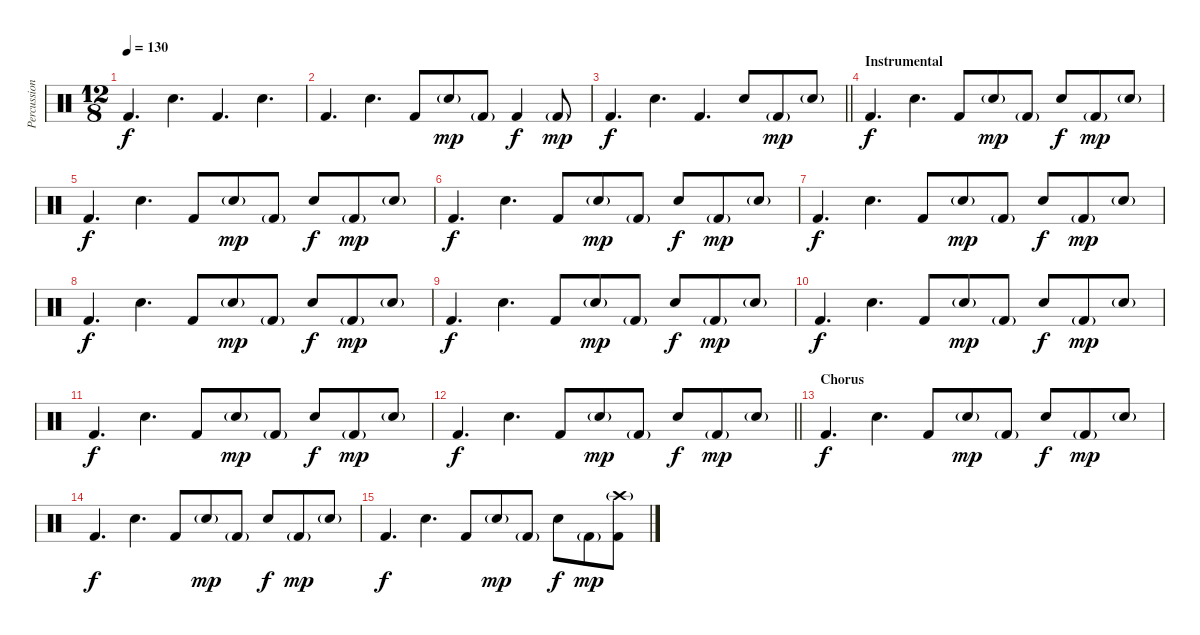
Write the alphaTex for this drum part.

\track ("Percussion" "Percussion") {instrument percussion}
\staff {score}
\articulation defaults
\ts (12 8)
\tempo 130
\clef neutral
\ks c "Kick (hit) 2".4{d dy f} "Snare (hit) 2".4{d} "Kick (hit) 2".4{d} "Snare (hit) 2".4{d}
|
"Kick (hit) 2".4{d} "Snare (hit) 2".4{d} "Kick (hit) 2".8 "Snare (hit) 2"{g}.8{dy mp} "Kick (hit) 2"{g}.8 "Kick (hit) 2".4{dy f} "Kick (hit) 2"{g}.8{dy mp} |
\barLineRight lightlight "Kick (hit) 2".4{d dy f} "Snare (hit) 2".4{d} "Kick (hit) 2".4{d} "Snare (hit) 2".8 "Kick (hit) 2"{g}.8{dy mp} "Snare (hit) 2"{g}.8
|
\section ("" "Instrumental")
"Kick (hit) 2".4{d dy f} "Snare (hit) 2".4{d} "Kick (hit) 2".8 "Snare (hit) 2"{g}.8{dy mp} "Kick (hit) 2"{g}.8 "Snare (hit) 2".8{dy f} "Kick (hit) 2"{g}.8{dy mp} "Snare (hit) 2"{g}.8 |
"Kick (hit) 2".4{d dy f} "Snare (hit) 2".4{d} "Kick (hit) 2".8 "Snare (hit) 2"{g}.8{dy mp} "Kick (hit) 2"{g}.8 "Snare (hit) 2".8{dy f} "Kick (hit) 2"{g}.8{dy mp} "Snare (hit) 2"{g}.8 |
"Kick (hit) 2".4{d dy f} "Snare (hit) 2".4{d} "Kick (hit) 2".8 "Snare (hit) 2"{g}.8{dy mp} "Kick (hit) 2"{g}.8 "Snare (hit) 2".8{dy f} "Kick (hit) 2"{g}.8{dy mp} "Snare (hit) 2"{g}.8 |
"Kick (hit) 2".4{d dy f} "Snare (hit) 2".4{d} "Kick (hit) 2".8 "Snare (hit) 2"{g}.8{dy mp} "Kick (hit) 2"{g}.8 "Snare (hit) 2".8{dy f} "Kick (hit) 2"{g}.8{dy mp} "Snare (hit) 2"{g}.8 |
"Kick (hit) 2".4{d dy f} "Snare (hit) 2".4{d} "Kick (hit) 2".8 "Snare (hit) 2"{g}.8{dy mp} "Kick (hit) 2"{g}.8 "Snare (hit) 2".8{dy f} "Kick (hit) 2"{g}.8{dy mp} "Snare (hit) 2"{g}.8 |
"Kick (hit) 2".4{d dy f} "Snare (hit) 2".4{d} "Kick (hit) 2".8 "Snare (hit) 2"{g}.8{dy mp} "Kick (hit) 2"{g}.8 "Snare (hit) 2".8{dy f} "Kick (hit) 2"{g}.8{dy mp} "Snare (hit) 2"{g}.8 |
"Kick (hit) 2".4{d dy f} "Snare (hit) 2".4{d} "Kick (hit) 2".8 "Snare (hit) 2"{g}.8{dy mp} "Kick (hit) 2"{g}.8 "Snare (hit) 2".8{dy f} "Kick (hit) 2"{g}.8{dy mp} "Snare (hit) 2"{g}.8 |
"Kick (hit) 2".4{d dy f} "Snare (hit) 2".4{d} "Kick (hit) 2".8 "Snare (hit) 2"{g}.8{dy mp} "Kick (hit) 2"{g}.8 "Snare (hit) 2".8{dy f} "Kick (hit) 2"{g}.8{dy mp} "Snare (hit) 2"{g}.8 |
\barLineRight lightlight "Kick (hit) 2".4{d dy f} "Snare (hit) 2".4{d} "Kick (hit) 2".8 "Snare (hit) 2"{g}.8{dy mp} "Kick (hit) 2"{g}.8 "Snare (hit) 2".8{dy f} "Kick (hit) 2"{g}.8{dy mp} "Snare (hit) 2"{g}.8
|
\section ("" "Chorus")
"Kick (hit) 2".4{d dy f} "Snare (hit) 2".4{d} "Kick (hit) 2".8 "Snare (hit) 2"{g}.8{dy mp} "Kick (hit) 2"{g}.8 "Snare (hit) 2".8{dy f} "Kick (hit) 2"{g}.8{dy mp} "Snare (hit) 2"{g}.8 |
"Kick (hit) 2".4{d dy f} "Snare (hit) 2".4{d} "Kick (hit) 2".8 "Snare (hit) 2"{g}.8{dy mp} "Kick (hit) 2"{g}.8 "Snare (hit) 2".8{dy f} "Kick (hit) 2"{g}.8{dy mp} "Snare (hit) 2"{g}.8 |
"Kick (hit) 2".4{d dy f} "Snare (hit) 2".4{d} "Kick (hit) 2".8 "Snare (hit) 2"{g}.8{dy mp} "Kick (hit) 2"{g}.8 "Snare (hit) 2".8{dy f} "Kick (hit) 2"{g}.8{dy mp} ("Crash high (hit)"{g} "Kick (hit) 2").8
